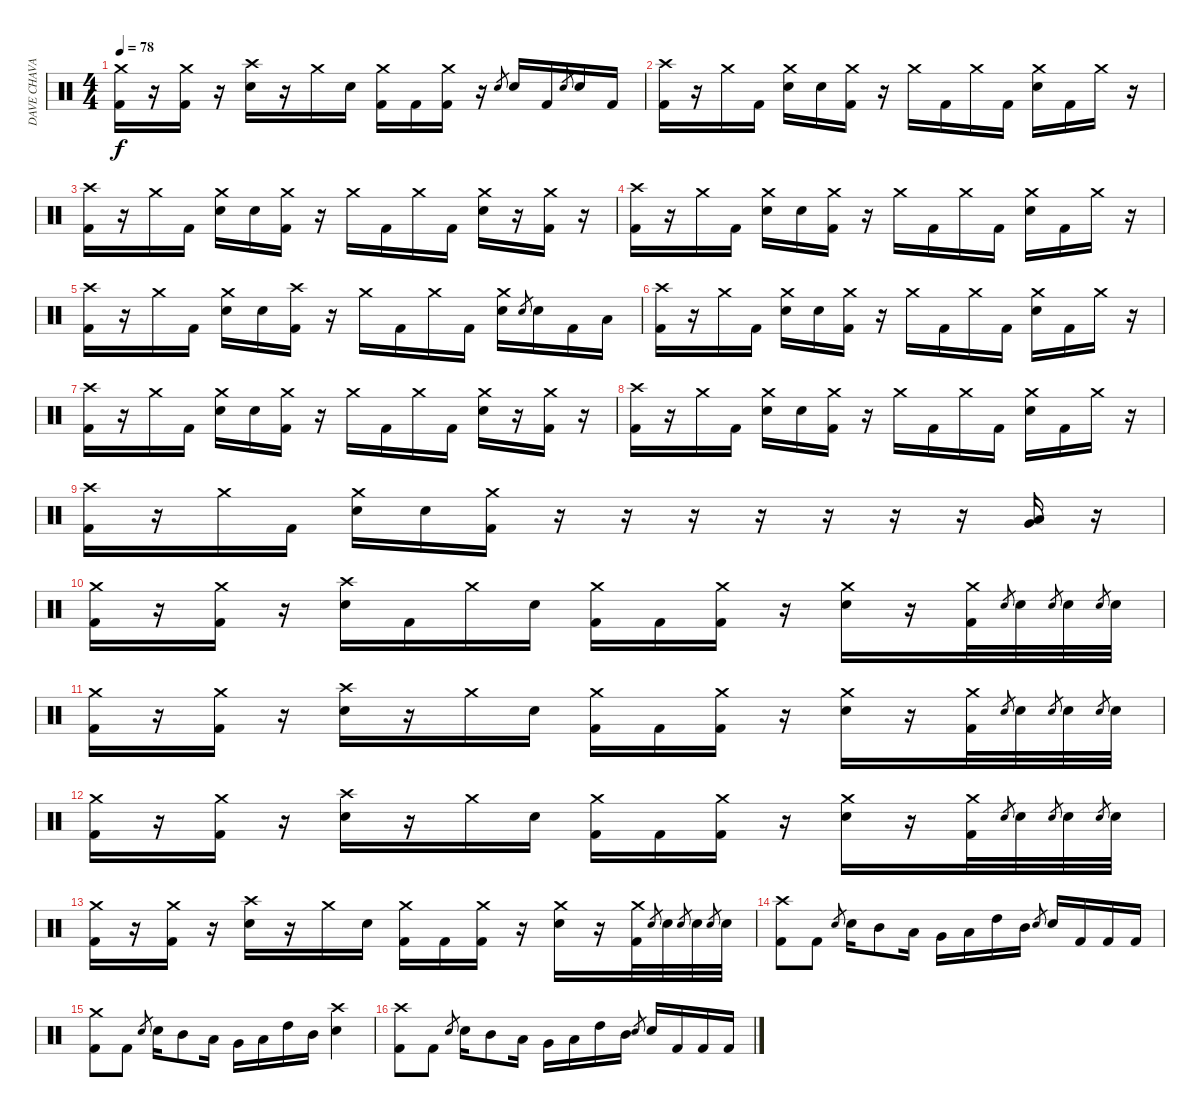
\track ("DAVE CHAVARRI" "DAVE CHAVA") {instrument percussion}
\staff {score}
\articulation defaults
\ts (4 4)
\tempo 78
\clef neutral
\ks c
("Crash medium (hit)" "Kick (hit) 2").16{dy f} r.16 ("Crash medium (hit)" "Kick (hit) 2").16 r.16 ("Crash high (hit)" "Electric Snare (hit)").16 r.16 "Crash medium (hit)".16 "Electric Snare (hit)".16 ("Crash medium (hit)" "Kick (hit) 2").16 "Kick (hit) 2".16 ("Crash medium (hit)" "Kick (hit) 2").16 r.16 "Electric Snare (hit)".8{gr} "Electric Snare (hit)".16 "Kick (hit) 2".16 "Electric Snare (hit)".8{gr} "Electric Snare (hit)".16 "Kick (hit) 2".16 |
("Crash high (hit)" "Kick (hit) 2").16 r.16 "Crash medium (hit)".16 "Kick (hit) 2".16 ("Crash medium (hit)" "Electric Snare (hit)").16 "Electric Snare (hit)".16 ("Crash medium (hit)" "Kick (hit) 2").16 r.16 "Crash medium (hit)".16 "Kick (hit) 2".16 "Crash medium (hit)".16 "Kick (hit) 2".16 ("Crash medium (hit)" "Electric Snare (hit)").16 "Kick (hit) 2".16 "Crash medium (hit)".16 r.16 |
("Crash high (hit)" "Kick (hit) 2").16 r.16 "Crash medium (hit)".16 "Kick (hit) 2".16 ("Crash medium (hit)" "Electric Snare (hit)").16 "Electric Snare (hit)".16 ("Crash medium (hit)" "Kick (hit) 2").16 r.16 "Crash medium (hit)".16 "Kick (hit) 2".16 "Crash medium (hit)".16 "Kick (hit) 2".16 ("Crash medium (hit)" "Electric Snare (hit)").16 r.16 ("Crash medium (hit)" "Kick (hit) 2").16 r.16 |
("Crash high (hit)" "Kick (hit) 2").16 r.16 "Crash medium (hit)".16 "Kick (hit) 2".16 ("Crash medium (hit)" "Electric Snare (hit)").16 "Electric Snare (hit)".16 ("Crash medium (hit)" "Kick (hit) 2").16 r.16 "Crash medium (hit)".16 "Kick (hit) 2".16 "Crash medium (hit)".16 "Kick (hit) 2".16 ("Crash medium (hit)" "Electric Snare (hit)").16 "Kick (hit) 2".16 "Crash medium (hit)".16 r.16 |
("Crash high (hit)" "Kick (hit) 2").16 r.16 "Crash medium (hit)".16 "Kick (hit) 2".16 ("Crash medium (hit)" "Electric Snare (hit)").16 "Electric Snare (hit)".16 ("Crash high (hit)" "Kick (hit) 2").16 r.16 "Crash medium (hit)".16 "Kick (hit) 2".16 "Crash medium (hit)".16 "Kick (hit) 2".16 ("Crash medium (hit)" "Electric Snare (hit)").16 "Electric Snare (hit)".8{gr} "Electric Snare (hit)".16 "Kick (hit) 2".16 "Low Tom (hit)".16 |
("Crash high (hit)" "Kick (hit) 2").16 r.16 "Crash medium (hit)".16 "Kick (hit) 2".16 ("Crash medium (hit)" "Electric Snare (hit)").16 "Electric Snare (hit)".16 ("Crash medium (hit)" "Kick (hit) 2").16 r.16 "Crash medium (hit)".16 "Kick (hit) 2".16 "Crash medium (hit)".16 "Kick (hit) 2".16 ("Crash medium (hit)" "Electric Snare (hit)").16 "Kick (hit) 2".16 "Crash medium (hit)".16 r.16 |
("Crash high (hit)" "Kick (hit) 2").16 r.16 "Crash medium (hit)".16 "Kick (hit) 2".16 ("Crash medium (hit)" "Electric Snare (hit)").16 "Electric Snare (hit)".16 ("Crash medium (hit)" "Kick (hit) 2").16 r.16 "Crash medium (hit)".16 "Kick (hit) 2".16 "Crash medium (hit)".16 "Kick (hit) 2".16 ("Crash medium (hit)" "Electric Snare (hit)").16 r.16 ("Crash medium (hit)" "Kick (hit) 2").16 r.16 |
("Crash high (hit)" "Kick (hit) 2").16 r.16 "Crash medium (hit)".16 "Kick (hit) 2".16 ("Crash medium (hit)" "Electric Snare (hit)").16 "Electric Snare (hit)".16 ("Crash medium (hit)" "Kick (hit) 2").16 r.16 "Crash medium (hit)".16 "Kick (hit) 2".16 "Crash medium (hit)".16 "Kick (hit) 2".16 ("Crash medium (hit)" "Electric Snare (hit)").16 "Kick (hit) 2".16 "Crash medium (hit)".16 r.16 |
("Crash high (hit)" "Kick (hit) 2").16 r.16 "Crash medium (hit)".16 "Kick (hit) 2".16 ("Crash medium (hit)" "Electric Snare (hit)").16 "Electric Snare (hit)".16 ("Crash medium (hit)" "Kick (hit) 2").16 r.16 r.16 r.16 r.16 r.16 r.16 r.16 ("Low Floor Tom (hit)" "Very Low Tom (hit)").16 r.16 |
("Crash medium (hit)" "Kick (hit) 2").16 r.16 ("Crash medium (hit)" "Kick (hit) 2").16 r.16 ("Crash high (hit)" "Electric Snare (hit)").16 "Kick (hit) 2".16 "Crash medium (hit)".16 "Electric Snare (hit)".16 ("Crash medium (hit)" "Kick (hit) 2").16 "Kick (hit) 2".16 ("Crash medium (hit)" "Kick (hit) 2").16 r.16 ("Crash medium (hit)" "Electric Snare (hit)").16 r.16 ("Crash medium (hit)" "Kick (hit) 2").32 "Electric Snare (hit)".8{gr} "Electric Snare (hit)".32 "Electric Snare (hit)".8{gr} "Electric Snare (hit)".32 "Electric Snare (hit)".8{gr} "Electric Snare (hit)".32 |
("Crash medium (hit)" "Kick (hit) 2").16 r.16 ("Crash medium (hit)" "Kick (hit) 2").16 r.16 ("Crash high (hit)" "Electric Snare (hit)").16 r.16 "Crash medium (hit)".16 "Electric Snare (hit)".16 ("Crash medium (hit)" "Kick (hit) 2").16 "Kick (hit) 2".16 ("Crash medium (hit)" "Kick (hit) 2").16 r.16 ("Crash medium (hit)" "Electric Snare (hit)").16 r.16 ("Crash medium (hit)" "Kick (hit) 2").32 "Electric Snare (hit)".8{gr} "Electric Snare (hit)".32 "Electric Snare (hit)".8{gr} "Electric Snare (hit)".32 "Electric Snare (hit)".8{gr} "Electric Snare (hit)".32 |
("Crash medium (hit)" "Kick (hit) 2").16 r.16 ("Crash medium (hit)" "Kick (hit) 2").16 r.16 ("Crash high (hit)" "Electric Snare (hit)").16 r.16 "Crash medium (hit)".16 "Electric Snare (hit)".16 ("Crash medium (hit)" "Kick (hit) 2").16 "Kick (hit) 2".16 ("Crash medium (hit)" "Kick (hit) 2").16 r.16 ("Crash medium (hit)" "Electric Snare (hit)").16 r.16 ("Crash medium (hit)" "Kick (hit) 2").32 "Electric Snare (hit)".8{gr} "Electric Snare (hit)".32 "Electric Snare (hit)".8{gr} "Electric Snare (hit)".32 "Electric Snare (hit)".8{gr} "Electric Snare (hit)".32 |
("Crash medium (hit)" "Kick (hit) 2").16 r.16 ("Crash medium (hit)" "Kick (hit) 2").16 r.16 ("Crash high (hit)" "Electric Snare (hit)").16 r.16 "Crash medium (hit)".16 "Electric Snare (hit)".16 ("Crash medium (hit)" "Kick (hit) 2").16 "Kick (hit) 2".16 ("Crash medium (hit)" "Kick (hit) 2").16 r.16 ("Crash medium (hit)" "Electric Snare (hit)").16 r.16 ("Crash medium (hit)" "Kick (hit) 2").32 "Electric Snare (hit)".8{gr} "Electric Snare (hit)".32 "Electric Snare (hit)".8{gr} "Electric Snare (hit)".32 "Electric Snare (hit)".8{gr} "Electric Snare (hit)".32 |
("Crash high (hit)" "Kick (hit) 2").8 "Kick (hit) 2".8 "Electric Snare (hit)".8{gr} "Electric Snare (hit)".16 "Mid Tom (hit)".8 "Low Tom (hit)".16 "Very Low Tom (hit)".16 "Low Floor Tom (hit)".16 "High Tom (hit)".16 "Mid Tom (hit)".16 "Electric Snare (hit)".8{gr} "Electric Snare (hit)".16 "Kick (hit) 2".16 "Kick (hit) 2".16 "Kick (hit) 2".16 |
("Crash medium (hit)" "Kick (hit) 2").8 "Kick (hit) 2".8 "Electric Snare (hit)".8{gr} "Electric Snare (hit)".16 "Mid Tom (hit)".8 "Low Tom (hit)".16 "Very Low Tom (hit)".16 "Low Floor Tom (hit)".16 "High Tom (hit)".16 "Mid Tom (hit)".16 ("Crash high (hit)" "Electric Snare (hit)").4 |
("Crash high (hit)" "Kick (hit) 2").8 "Kick (hit) 2".8 "Electric Snare (hit)".8{gr} "Electric Snare (hit)".16 "Mid Tom (hit)".8 "Low Tom (hit)".16 "Very Low Tom (hit)".16 "Low Floor Tom (hit)".16 "High Tom (hit)".16 "Mid Tom (hit)".16 "Electric Snare (hit)".8{gr} "Electric Snare (hit)".16 "Kick (hit) 2".16 "Kick (hit) 2".16 "Kick (hit) 2".16
